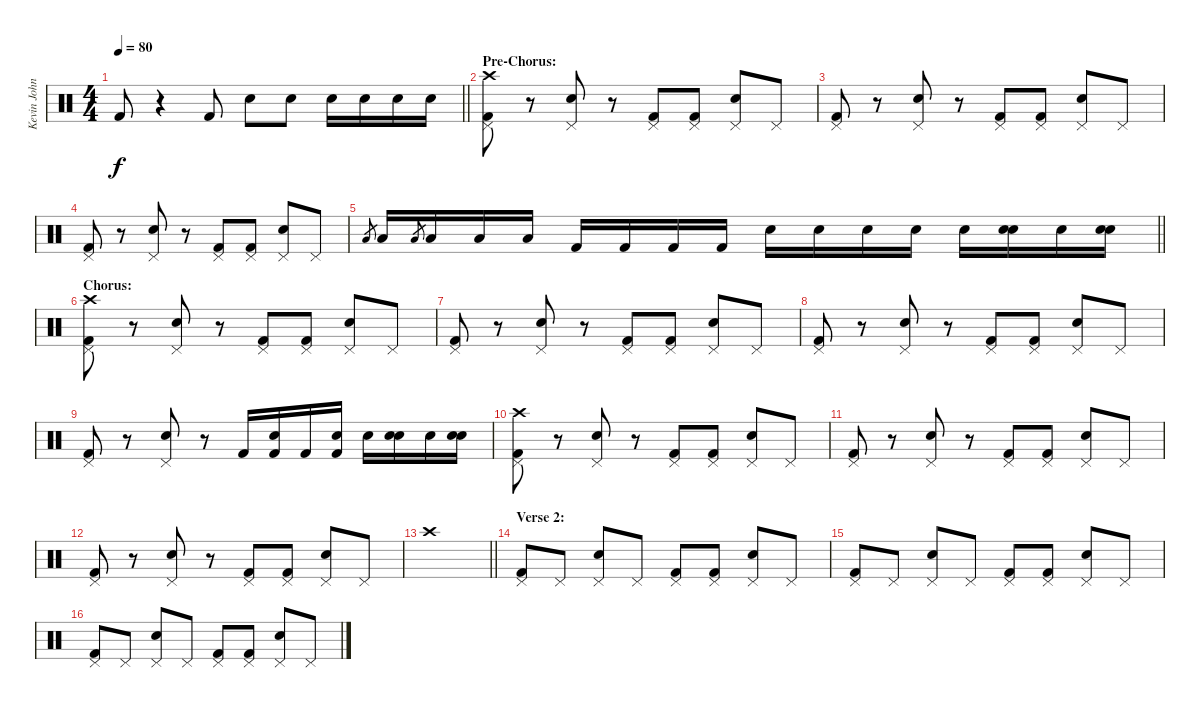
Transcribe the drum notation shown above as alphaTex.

\track ("Kevin John Grace" "Kevin John") {instrument percussion}
\staff {score}
\articulation defaults
\ts (4 4)
\tempo 80
\clef neutral
\barLineRight lightlight
\ks c "Kick (hit) 2".8{dy f}
r.4 "Kick (hit) 2".8 "Snare (hit) 2".8 "Snare (hit) 2".8 "Snare (hit) 2".16 "Snare (hit) 2".16 "Snare (hit) 2".16 "Snare (hit) 2".16 |
\section ("" "Pre-Chorus:")
("Pedal Hi-Hat (hit)" "Crash high (hit)" "Kick (hit) 2").8 r.8 ("Pedal Hi-Hat (hit)" "Snare (hit) 2").8 r.8 ("Pedal Hi-Hat (hit)" "Kick (hit) 2").8 ("Pedal Hi-Hat (hit)" "Kick (hit) 2").8 ("Pedal Hi-Hat (hit)" "Snare (hit) 2").8 "Pedal Hi-Hat (hit)".8 |
("Pedal Hi-Hat (hit)" "Kick (hit) 2").8 r.8 ("Pedal Hi-Hat (hit)" "Snare (hit) 2").8 r.8 ("Pedal Hi-Hat (hit)" "Kick (hit) 2").8 ("Pedal Hi-Hat (hit)" "Kick (hit) 2").8 ("Pedal Hi-Hat (hit)" "Snare (hit) 2").8 "Pedal Hi-Hat (hit)".8 |
("Pedal Hi-Hat (hit)" "Kick (hit) 2").8 r.8 ("Pedal Hi-Hat (hit)" "Snare (hit) 2").8 r.8 ("Pedal Hi-Hat (hit)" "Kick (hit) 2").8 ("Pedal Hi-Hat (hit)" "Kick (hit) 2").8 ("Pedal Hi-Hat (hit)" "Snare (hit) 2").8 "Pedal Hi-Hat (hit)".8 |
\barLineRight lightlight "Low Tom (hit)".8{gr} "Low Tom (hit)".16 "Low Tom (hit)".8{gr} "Low Tom (hit)".16 "Low Tom (hit)".16 "Low Tom (hit)".16 "Kick (hit) 2".16 "Kick (hit) 2".16 "Kick (hit) 2".16 "Kick (hit) 2".16 "Snare (hit) 2".16 "Snare (hit) 2".16 "Snare (hit) 2".16 "Snare (hit) 2".16 "Snare (hit) 2".16
("Snare (hit) 2" "Snare (hit) 2").16 "Snare (hit) 2".16 ("Snare (hit) 2" "Snare (hit) 2").16 |
\section ("" "Chorus:")
("Pedal Hi-Hat (hit)" "Crash high (hit)" "Kick (hit) 2").8 r.8 ("Pedal Hi-Hat (hit)" "Snare (hit) 2").8 r.8 ("Pedal Hi-Hat (hit)" "Kick (hit) 2").8 ("Pedal Hi-Hat (hit)" "Kick (hit) 2").8 ("Pedal Hi-Hat (hit)" "Snare (hit) 2").8 "Pedal Hi-Hat (hit)".8 |
("Pedal Hi-Hat (hit)" "Kick (hit) 2").8 r.8 ("Pedal Hi-Hat (hit)" "Snare (hit) 2").8 r.8 ("Pedal Hi-Hat (hit)" "Kick (hit) 2").8 ("Pedal Hi-Hat (hit)" "Kick (hit) 2").8 ("Pedal Hi-Hat (hit)" "Snare (hit) 2").8 "Pedal Hi-Hat (hit)".8 |
("Pedal Hi-Hat (hit)" "Kick (hit) 2").8 r.8 ("Pedal Hi-Hat (hit)" "Snare (hit) 2").8 r.8 ("Pedal Hi-Hat (hit)" "Kick (hit) 2").8 ("Pedal Hi-Hat (hit)" "Kick (hit) 2").8 ("Pedal Hi-Hat (hit)" "Snare (hit) 2").8 "Pedal Hi-Hat (hit)".8 |
("Pedal Hi-Hat (hit)" "Kick (hit) 2").8 r.8 ("Pedal Hi-Hat (hit)" "Snare (hit) 2").8 r.8 "Kick (hit) 2".16 ("Snare (hit) 2" "Kick (hit) 2").16 "Kick (hit) 2".16 ("Snare (hit) 2" "Kick (hit) 2").16 "Snare (hit) 2".16 ("Snare (hit) 2" "Snare (hit) 2").16 "Snare (hit) 2".16 ("Snare (hit) 2" "Snare (hit) 2").16 |
("Pedal Hi-Hat (hit)" "Crash high (hit)" "Kick (hit) 2").8 r.8 ("Pedal Hi-Hat (hit)" "Snare (hit) 2").8 r.8 ("Pedal Hi-Hat (hit)" "Kick (hit) 2").8 ("Pedal Hi-Hat (hit)" "Kick (hit) 2").8 ("Pedal Hi-Hat (hit)" "Snare (hit) 2").8 "Pedal Hi-Hat (hit)".8 |
("Pedal Hi-Hat (hit)" "Kick (hit) 2").8 r.8 ("Pedal Hi-Hat (hit)" "Snare (hit) 2").8 r.8 ("Pedal Hi-Hat (hit)" "Kick (hit) 2").8 ("Pedal Hi-Hat (hit)" "Kick (hit) 2").8 ("Pedal Hi-Hat (hit)" "Snare (hit) 2").8 "Pedal Hi-Hat (hit)".8 |
("Pedal Hi-Hat (hit)" "Kick (hit) 2").8 r.8 ("Pedal Hi-Hat (hit)" "Snare (hit) 2").8 r.8 ("Pedal Hi-Hat (hit)" "Kick (hit) 2").8 ("Pedal Hi-Hat (hit)" "Kick (hit) 2").8 ("Pedal Hi-Hat (hit)" "Snare (hit) 2").8 "Pedal Hi-Hat (hit)".8 |
\barLineRight lightlight "Crash high (hit)".1
|
\section ("" "Verse 2:")
("Pedal Hi-Hat (hit)" "Kick (hit) 2").8 "Pedal Hi-Hat (hit)".8 ("Pedal Hi-Hat (hit)" "Snare (hit) 2").8 "Pedal Hi-Hat (hit)".8 ("Pedal Hi-Hat (hit)" "Kick (hit) 2").8 ("Pedal Hi-Hat (hit)" "Kick (hit) 2").8 ("Pedal Hi-Hat (hit)" "Snare (hit) 2").8 "Pedal Hi-Hat (hit)".8 |
("Pedal Hi-Hat (hit)" "Kick (hit) 2").8 "Pedal Hi-Hat (hit)".8 ("Pedal Hi-Hat (hit)" "Snare (hit) 2").8 "Pedal Hi-Hat (hit)".8 ("Pedal Hi-Hat (hit)" "Kick (hit) 2").8 ("Pedal Hi-Hat (hit)" "Kick (hit) 2").8 ("Pedal Hi-Hat (hit)" "Snare (hit) 2").8 "Pedal Hi-Hat (hit)".8 |
("Pedal Hi-Hat (hit)" "Kick (hit) 2").8 "Pedal Hi-Hat (hit)".8 ("Pedal Hi-Hat (hit)" "Snare (hit) 2").8 "Pedal Hi-Hat (hit)".8 ("Pedal Hi-Hat (hit)" "Kick (hit) 2").8 ("Pedal Hi-Hat (hit)" "Kick (hit) 2").8 ("Pedal Hi-Hat (hit)" "Snare (hit) 2").8 "Pedal Hi-Hat (hit)".8
